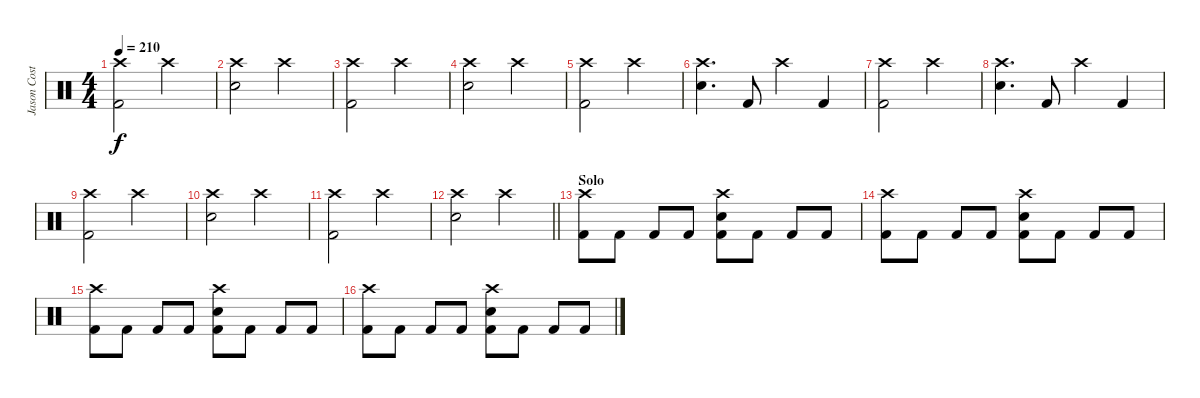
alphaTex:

\track ("Jason Costa" "Jason Cost") {instrument percussion}
\staff {score}
\articulation defaults
\ts (4 4)
\tempo 210
\clef neutral
\ks c
("Crash high (hit)" "Kick (hit) 2").2{dy f} "Crash high (hit)".2 |
("Crash high (hit)" "Electric Snare (hit)").2 "Crash high (hit)".2 |
("Crash high (hit)" "Kick (hit) 2").2 "Crash high (hit)".2 |
("Crash high (hit)" "Electric Snare (hit)").2 "Crash high (hit)".2 |
("Crash high (hit)" "Kick (hit) 2").2 "Crash high (hit)".2 |
("Crash high (hit)" "Electric Snare (hit)").4{d} "Kick (hit) 2".8 "Crash high (hit)".4 "Kick (hit) 2".4 |
("Crash high (hit)" "Kick (hit) 2").2 "Crash high (hit)".2 |
("Crash high (hit)" "Electric Snare (hit)").4{d} "Kick (hit) 2".8 "Crash high (hit)".4 "Kick (hit) 2".4 |
("Crash high (hit)" "Kick (hit) 2").2 "Crash high (hit)".2 |
("Crash high (hit)" "Electric Snare (hit)").2 "Crash high (hit)".2 |
("Crash high (hit)" "Kick (hit) 2").2 "Crash high (hit)".2 |
\barLineRight lightlight
("Crash high (hit)" "Electric Snare (hit)").2 "Crash high (hit)".2 |
\section ("" "Solo")
("Crash high (hit)" "Kick (hit) 2").8 "Kick (hit) 2".8 "Kick (hit) 2".8 "Kick (hit) 2".8 ("Crash high (hit)" "Electric Snare (hit)" "Kick (hit) 2").8 "Kick (hit) 2".8 "Kick (hit) 2".8 "Kick (hit) 2".8 |
("Crash high (hit)" "Kick (hit) 2").8 "Kick (hit) 2".8 "Kick (hit) 2".8 "Kick (hit) 2".8 ("Crash high (hit)" "Electric Snare (hit)" "Kick (hit) 2").8 "Kick (hit) 2".8 "Kick (hit) 2".8 "Kick (hit) 2".8 |
("Crash high (hit)" "Kick (hit) 2").8 "Kick (hit) 2".8 "Kick (hit) 2".8 "Kick (hit) 2".8 ("Crash high (hit)" "Electric Snare (hit)" "Kick (hit) 2").8 "Kick (hit) 2".8 "Kick (hit) 2".8 "Kick (hit) 2".8 |
("Crash high (hit)" "Kick (hit) 2").8 "Kick (hit) 2".8 "Kick (hit) 2".8 "Kick (hit) 2".8 ("Crash high (hit)" "Electric Snare (hit)" "Kick (hit) 2").8 "Kick (hit) 2".8 "Kick (hit) 2".8 "Kick (hit) 2".8
